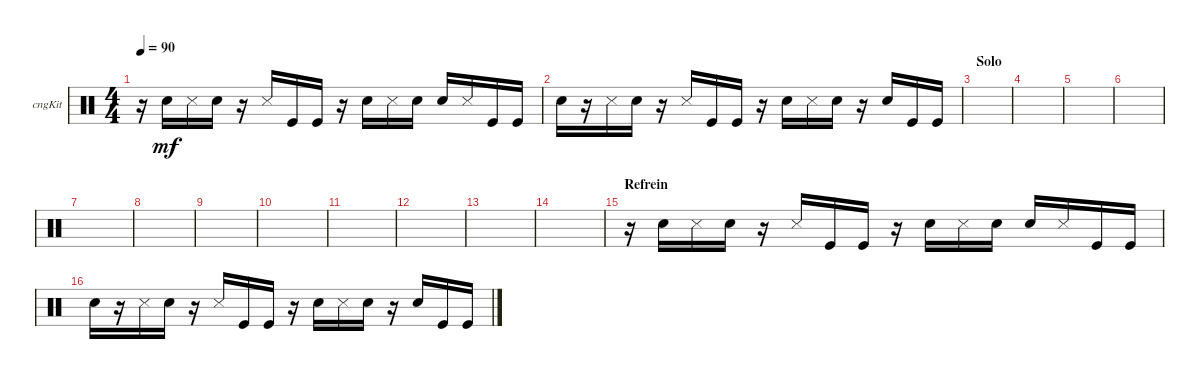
\defaultSystemsLayout 4
\bracketExtendMode groupsimilarinstruments
\firstSystemTrackNameOrientation horizontal
\otherSystemsTrackNameOrientation horizontal
\track ("Congas" "cngKit") {instrument percussion}
\staff {score}
\articulation defaults
\ts (4 4)
\tempo 90
\clef neutral
\scale
0.333333
\ks c
r.16{dy mf} "Snare (hit) 2".16 "Snare (side stick) 3".16 "Snare (hit) 2".16 r.16 "Snare (side stick) 3".16 "Kick (hit)".16 "Kick (hit)".16 r.16 "Snare (hit) 2".16 "Snare (side stick) 3".16 "Snare (hit) 2".16 "Snare (hit) 2".16 "Snare (side stick) 3".16 "Kick (hit)".16 "Kick (hit)".16 |
\scale
0.333333 "Snare (hit) 2".16 r.16 "Snare (side stick) 3".16 "Snare (hit) 2".16 r.16 "Snare (side stick) 3".16 "Kick (hit)".16 "Kick (hit)".16 r.16 "Snare (hit) 2".16 "Snare (side stick) 3".16 "Snare (hit) 2".16 r.16 "Snare (hit) 2".16 "Kick (hit)".16 "Kick (hit)".16 |
\section ("" "Solo")
\scale
0.333333 |
\scale
0.333333 |
\scale
0.333333 |
\scale
0.333333 |
\scale
0.333333 |
\scale
0.333333 |
\scale
0.333333 |
\scale
0.333333 |
\scale
0.333333 |
\scale
0.333333 |
\scale
0.333333 |
\scale
0.333333 |
\section ("" "Refrein")
\scale
0.333333 r.16 "Snare (hit) 2".16 "Snare (side stick) 3".16 "Snare (hit) 2".16 r.16 "Snare (side stick) 3".16 "Kick (hit)".16 "Kick (hit)".16 r.16 "Snare (hit) 2".16 "Snare (side stick) 3".16 "Snare (hit) 2".16 "Snare (hit) 2".16 "Snare (side stick) 3".16 "Kick (hit)".16 "Kick (hit)".16 |
\scale
0.333333 "Snare (hit) 2".16 r.16 "Snare (side stick) 3".16 "Snare (hit) 2".16 r.16 "Snare (side stick) 3".16 "Kick (hit)".16 "Kick (hit)".16 r.16 "Snare (hit) 2".16 "Snare (side stick) 3".16 "Snare (hit) 2".16 r.16 "Snare (hit) 2".16 "Kick (hit)".16 "Kick (hit)".16
